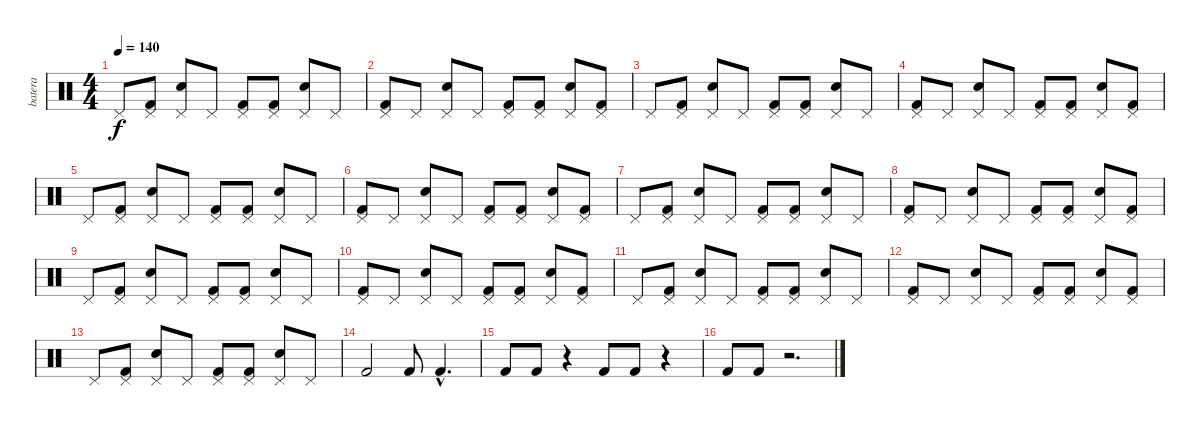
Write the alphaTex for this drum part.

\track ("batera" "batera") {instrument percussion}
\staff {score}
\articulation defaults
\ts (4 4)
\tempo 140
\clef neutral
\ks c "Pedal Hi-Hat (hit)".8{dy f}
("Kick (hit) 2" "Pedal Hi-Hat (hit)").8 ("Snare (hit) 2" "Pedal Hi-Hat (hit)").8 "Pedal Hi-Hat (hit)".8 ("Kick (hit) 2" "Pedal Hi-Hat (hit)").8 ("Kick (hit) 2" "Pedal Hi-Hat (hit)").8 ("Snare (hit) 2" "Pedal Hi-Hat (hit)").8 "Pedal Hi-Hat (hit)".8 |
("Kick (hit) 2" "Pedal Hi-Hat (hit)").8 "Pedal Hi-Hat (hit)".8 ("Snare (hit) 2" "Pedal Hi-Hat (hit)").8 "Pedal Hi-Hat (hit)".8 ("Kick (hit) 2" "Pedal Hi-Hat (hit)").8 ("Kick (hit) 2" "Pedal Hi-Hat (hit)").8 ("Snare (hit) 2" "Pedal Hi-Hat (hit)").8 ("Kick (hit) 2" "Pedal Hi-Hat (hit)").8 |
"Pedal Hi-Hat (hit)".8 ("Kick (hit) 2" "Pedal Hi-Hat (hit)").8 ("Snare (hit) 2" "Pedal Hi-Hat (hit)").8 "Pedal Hi-Hat (hit)".8 ("Kick (hit) 2" "Pedal Hi-Hat (hit)").8 ("Kick (hit) 2" "Pedal Hi-Hat (hit)").8 ("Snare (hit) 2" "Pedal Hi-Hat (hit)").8 "Pedal Hi-Hat (hit)".8 |
("Kick (hit) 2" "Pedal Hi-Hat (hit)").8 "Pedal Hi-Hat (hit)".8 ("Snare (hit) 2" "Pedal Hi-Hat (hit)").8 "Pedal Hi-Hat (hit)".8 ("Kick (hit) 2" "Pedal Hi-Hat (hit)").8 ("Kick (hit) 2" "Pedal Hi-Hat (hit)").8 ("Snare (hit) 2" "Pedal Hi-Hat (hit)").8 ("Kick (hit) 2" "Pedal Hi-Hat (hit)").8 |
"Pedal Hi-Hat (hit)".8 ("Kick (hit) 2" "Pedal Hi-Hat (hit)").8 ("Snare (hit) 2" "Pedal Hi-Hat (hit)").8 "Pedal Hi-Hat (hit)".8 ("Kick (hit) 2" "Pedal Hi-Hat (hit)").8 ("Kick (hit) 2" "Pedal Hi-Hat (hit)").8 ("Snare (hit) 2" "Pedal Hi-Hat (hit)").8 "Pedal Hi-Hat (hit)".8 |
("Kick (hit) 2" "Pedal Hi-Hat (hit)").8 "Pedal Hi-Hat (hit)".8 ("Snare (hit) 2" "Pedal Hi-Hat (hit)").8 "Pedal Hi-Hat (hit)".8 ("Kick (hit) 2" "Pedal Hi-Hat (hit)").8 ("Kick (hit) 2" "Pedal Hi-Hat (hit)").8 ("Snare (hit) 2" "Pedal Hi-Hat (hit)").8 ("Kick (hit) 2" "Pedal Hi-Hat (hit)").8 |
"Pedal Hi-Hat (hit)".8 ("Kick (hit) 2" "Pedal Hi-Hat (hit)").8 ("Snare (hit) 2" "Pedal Hi-Hat (hit)").8 "Pedal Hi-Hat (hit)".8 ("Kick (hit) 2" "Pedal Hi-Hat (hit)").8 ("Kick (hit) 2" "Pedal Hi-Hat (hit)").8 ("Snare (hit) 2" "Pedal Hi-Hat (hit)").8 "Pedal Hi-Hat (hit)".8 |
("Kick (hit) 2" "Pedal Hi-Hat (hit)").8 "Pedal Hi-Hat (hit)".8 ("Snare (hit) 2" "Pedal Hi-Hat (hit)").8 "Pedal Hi-Hat (hit)".8 ("Kick (hit) 2" "Pedal Hi-Hat (hit)").8 ("Kick (hit) 2" "Pedal Hi-Hat (hit)").8 ("Snare (hit) 2" "Pedal Hi-Hat (hit)").8 ("Kick (hit) 2" "Pedal Hi-Hat (hit)").8 |
"Pedal Hi-Hat (hit)".8 ("Kick (hit) 2" "Pedal Hi-Hat (hit)").8 ("Snare (hit) 2" "Pedal Hi-Hat (hit)").8 "Pedal Hi-Hat (hit)".8 ("Kick (hit) 2" "Pedal Hi-Hat (hit)").8 ("Kick (hit) 2" "Pedal Hi-Hat (hit)").8 ("Snare (hit) 2" "Pedal Hi-Hat (hit)").8 "Pedal Hi-Hat (hit)".8 |
("Kick (hit) 2" "Pedal Hi-Hat (hit)").8 "Pedal Hi-Hat (hit)".8 ("Snare (hit) 2" "Pedal Hi-Hat (hit)").8 "Pedal Hi-Hat (hit)".8 ("Kick (hit) 2" "Pedal Hi-Hat (hit)").8 ("Kick (hit) 2" "Pedal Hi-Hat (hit)").8 ("Snare (hit) 2" "Pedal Hi-Hat (hit)").8 ("Kick (hit) 2" "Pedal Hi-Hat (hit)").8 |
"Pedal Hi-Hat (hit)".8 ("Kick (hit) 2" "Pedal Hi-Hat (hit)").8 ("Snare (hit) 2" "Pedal Hi-Hat (hit)").8 "Pedal Hi-Hat (hit)".8 ("Kick (hit) 2" "Pedal Hi-Hat (hit)").8 ("Kick (hit) 2" "Pedal Hi-Hat (hit)").8 ("Snare (hit) 2" "Pedal Hi-Hat (hit)").8 "Pedal Hi-Hat (hit)".8 |
("Kick (hit) 2" "Pedal Hi-Hat (hit)").8 "Pedal Hi-Hat (hit)".8 ("Snare (hit) 2" "Pedal Hi-Hat (hit)").8 "Pedal Hi-Hat (hit)".8 ("Kick (hit) 2" "Pedal Hi-Hat (hit)").8 ("Kick (hit) 2" "Pedal Hi-Hat (hit)").8 ("Snare (hit) 2" "Pedal Hi-Hat (hit)").8 ("Kick (hit) 2" "Pedal Hi-Hat (hit)").8 |
"Pedal Hi-Hat (hit)".8 ("Kick (hit) 2" "Pedal Hi-Hat (hit)").8 ("Snare (hit) 2" "Pedal Hi-Hat (hit)").8 "Pedal Hi-Hat (hit)".8 ("Kick (hit) 2" "Pedal Hi-Hat (hit)").8 ("Kick (hit) 2" "Pedal Hi-Hat (hit)").8 ("Snare (hit) 2" "Pedal Hi-Hat (hit)").8 "Pedal Hi-Hat (hit)".8 |
"Kick (hit) 2".2 "Kick (hit) 2".8 "Kick (hit) 2"{hac}.4{d} |
"Kick (hit) 2".8 "Kick (hit) 2".8 r.4 "Kick (hit) 2".8 "Kick (hit) 2".8 r.4 |
"Kick (hit) 2".8 "Kick (hit) 2".8 r.2{d}
